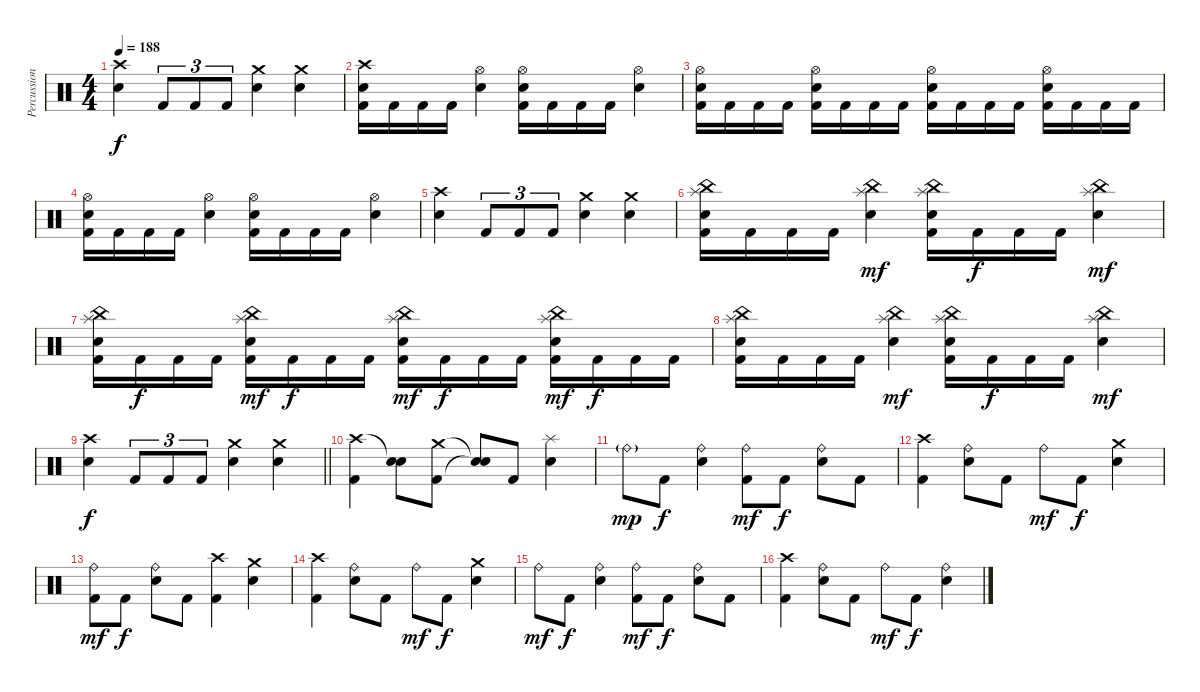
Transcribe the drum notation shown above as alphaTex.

\track ("Percussion" "Percussion") {instrument percussion}
\staff {score}
\articulation defaults
\ts (4 4)
\tempo 188
\clef neutral
\ks c
("Crash high (hit)" "Electric Snare (hit)").4{dy f} "Kick (hit) 2".8{tu (3 2)} "Kick (hit) 2".8{tu (3 2)} "Kick (hit) 2".8{tu (3 2)} ("Crash medium (hit)" "Electric Snare (hit)").4 ("Crash medium (hit)" "Electric Snare (hit)").4 |
("Crash high (hit)" "Electric Snare (hit)" "Kick (hit) 2").16 "Kick (hit) 2".16 "Kick (hit) 2".16 "Kick (hit) 2".16 ("Hi-Hat (open)" "Electric Snare (hit)").4 ("Hi-Hat (open)" "Electric Snare (hit)" "Kick (hit) 2").16 "Kick (hit) 2".16 "Kick (hit) 2".16 "Kick (hit) 2".16 ("Hi-Hat (open)" "Electric Snare (hit)").4 |
("Hi-Hat (open)" "Electric Snare (hit)" "Kick (hit) 2").16 "Kick (hit) 2".16 "Kick (hit) 2".16 "Kick (hit) 2".16 ("Hi-Hat (open)" "Electric Snare (hit)" "Kick (hit) 2").16 "Kick (hit) 2".16 "Kick (hit) 2".16 "Kick (hit) 2".16 ("Hi-Hat (open)" "Electric Snare (hit)" "Kick (hit) 2").16 "Kick (hit) 2".16 "Kick (hit) 2".16 "Kick (hit) 2".16 ("Hi-Hat (open)" "Electric Snare (hit)" "Kick (hit) 2").16 "Kick (hit) 2".16 "Kick (hit) 2".16 "Kick (hit) 2".16 |
("Hi-Hat (open)" "Electric Snare (hit)" "Kick (hit) 2").16 "Kick (hit) 2".16 "Kick (hit) 2".16 "Kick (hit) 2".16 ("Hi-Hat (open)" "Electric Snare (hit)").4 ("Hi-Hat (open)" "Electric Snare (hit)" "Kick (hit) 2").16 "Kick (hit) 2".16 "Kick (hit) 2".16 "Kick (hit) 2".16 ("Hi-Hat (open)" "Electric Snare (hit)").4 |
("Crash high (hit)" "Electric Snare (hit)").4 "Kick (hit) 2".8{tu (3 2)} "Kick (hit) 2".8{tu (3 2)} "Kick (hit) 2".8{tu (3 2)} ("Crash medium (hit)" "Electric Snare (hit)").4 ("Crash medium (hit)" "Electric Snare (hit)").4 |
("China (hit)" "Splash (hit)" "Electric Snare (hit)" "Kick (hit) 2").16 "Kick (hit) 2".16 "Kick (hit) 2".16 "Kick (hit) 2".16 ("China (hit)" "Splash (hit)" "Electric Snare (hit)").4{dy mf} ("China (hit)" "Splash (hit)" "Electric Snare (hit)" "Kick (hit) 2").16 "Kick (hit) 2".16{dy f} "Kick (hit) 2".16 "Kick (hit) 2".16 ("China (hit)" "Splash (hit)" "Electric Snare (hit)").4{dy mf} |
("China (hit)" "Splash (hit)" "Electric Snare (hit)" "Kick (hit) 2").16 "Kick (hit) 2".16{dy f} "Kick (hit) 2".16 "Kick (hit) 2".16 ("China (hit)" "Splash (hit)" "Electric Snare (hit)" "Kick (hit) 2").16{dy mf} "Kick (hit) 2".16{dy f} "Kick (hit) 2".16 "Kick (hit) 2".16 ("China (hit)" "Splash (hit)" "Electric Snare (hit)" "Kick (hit) 2").16{dy mf} "Kick (hit) 2".16{dy f} "Kick (hit) 2".16 "Kick (hit) 2".16 ("China (hit)" "Splash (hit)" "Electric Snare (hit)" "Kick (hit) 2").16{dy mf} "Kick (hit) 2".16{dy f} "Kick (hit) 2".16 "Kick (hit) 2".16 |
("China (hit)" "Splash (hit)" "Electric Snare (hit)" "Kick (hit) 2").16 "Kick (hit) 2".16 "Kick (hit) 2".16 "Kick (hit) 2".16 ("China (hit)" "Splash (hit)" "Electric Snare (hit)").4{dy mf} ("China (hit)" "Splash (hit)" "Electric Snare (hit)" "Kick (hit) 2").16 "Kick (hit) 2".16{dy f} "Kick (hit) 2".16 "Kick (hit) 2".16 ("China (hit)" "Splash (hit)" "Electric Snare (hit)").4{dy mf} |
\barLineRight lightlight
("Crash high (hit)" "Electric Snare (hit)").4{dy f} "Kick (hit) 2".8{tu (3 2)} "Kick (hit) 2".8{tu (3 2)} "Kick (hit) 2".8{tu (3 2)} ("Crash medium (hit)" "Electric Snare (hit)").4 ("Crash medium (hit)" "Electric Snare (hit)").4 |
("Crash high (hit)" "Kick (hit) 2").4 ("Snare (hit)"{t} "Electric Snare (hit)").8 ("Crash medium (hit)" "Kick (hit) 2").8 ("Snare (hit)"{t} "Snare (hit)"{t}).8 "Kick (hit) 2".8 ("Splash (hit)" "Electric Snare (hit)").4 |
"Ride (bell)"{g}.8{dy mp} "Kick (hit) 2".8{dy f} ("Ride (bell)" "Electric Snare (hit)").4 ("Ride (bell)" "Kick (hit) 2").8{dy mf} "Kick (hit) 2".8{dy f} ("Ride (bell)" "Electric Snare (hit)").8 "Kick (hit) 2".8 |
("Crash high (hit)" "Kick (hit) 2").4 ("Ride (bell)" "Electric Snare (hit)").8 "Kick (hit) 2".8 "Ride (bell)".8{dy mf} "Kick (hit) 2".8{dy f} ("Crash medium (hit)" "Electric Snare (hit)").4 |
("Ride (bell)" "Kick (hit) 2").8{dy mf} "Kick (hit) 2".8{dy f} ("Ride (bell)" "Electric Snare (hit)").8 "Kick (hit) 2".8 ("Crash high (hit)" "Kick (hit) 2").4 ("Crash medium (hit)" "Electric Snare (hit)").4 |
("Crash high (hit)" "Kick (hit) 2").4 ("Ride (bell)" "Electric Snare (hit)").8 "Kick (hit) 2".8 "Ride (bell)".8{dy mf} "Kick (hit) 2".8{dy f} ("Crash medium (hit)" "Electric Snare (hit)").4 |
"Ride (bell)".8{dy mf} "Kick (hit) 2".8{dy f} ("Ride (bell)" "Electric Snare (hit)").4 ("Ride (bell)" "Kick (hit) 2").8{dy mf} "Kick (hit) 2".8{dy f} ("Ride (bell)" "Electric Snare (hit)").8 "Kick (hit) 2".8 |
("Crash high (hit)" "Kick (hit) 2").4 ("Ride (bell)" "Electric Snare (hit)").8 "Kick (hit) 2".8 "Ride (bell)".8{dy mf} "Kick (hit) 2".8{dy f} ("Ride (bell)" "Electric Snare (hit)").4
